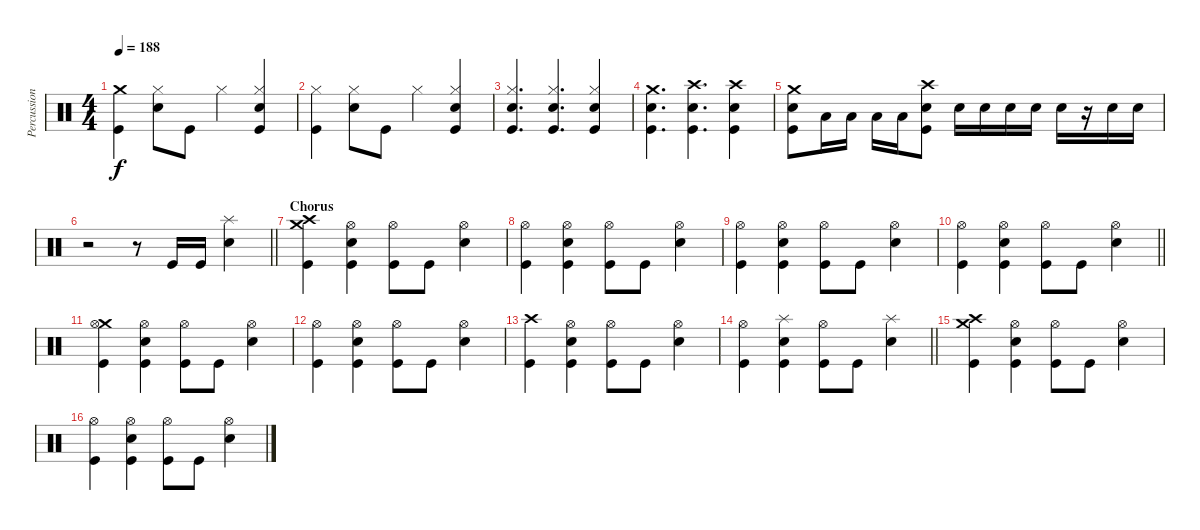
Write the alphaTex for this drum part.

\track ("Percussion" "Percussion") {instrument percussion}
\staff {score}
\articulation defaults
\ts (4 4)
\tempo 188
\clef neutral
\ks c
("Crash medium (hit)" "Kick (hit)").4{dy f} ("Hi-Hat (closed)" "Electric Snare (hit)").8 "Kick (hit)".8 "Hi-Hat (closed)".4 ("Hi-Hat (closed)" "Electric Snare (hit)" "Kick (hit)").4 |
("Hi-Hat (closed)" "Kick (hit)").4 ("Hi-Hat (closed)" "Electric Snare (hit)").8 "Kick (hit)".8 "Hi-Hat (closed)".4 ("Hi-Hat (closed)" "Electric Snare (hit)" "Kick (hit)").4 |
("Hi-Hat (closed)" "Electric Snare (hit)" "Kick (hit)").4{d} ("Hi-Hat (closed)" "Electric Snare (hit)" "Kick (hit)").4{d} ("Hi-Hat (closed)" "Electric Snare (hit)" "Kick (hit)").4 |
("Crash medium (hit)" "Electric Snare (hit)" "Kick (hit)").4{d} ("Crash high (hit)" "Electric Snare (hit)" "Kick (hit)").4{d} ("Crash high (hit)" "Electric Snare (hit)" "Kick (hit)").4 |
("Crash medium (hit)" "Electric Snare (hit)" "Kick (hit)").8 "Low Floor Tom (hit)".16 "Low Floor Tom (hit)".16 "Low Floor Tom (hit)".16 "Low Floor Tom (hit)".16 ("Crash high (hit)" "Electric Snare (hit)" "Kick (hit)").8 "Electric Snare (hit)".16 "Electric Snare (hit)".16 "Electric Snare (hit)".16 "Electric Snare (hit)".16 "Electric Snare (hit)".16 r.16 "Electric Snare (hit)".16 "Electric Snare (hit)".16 |
\barLineRight lightlight
r.2 r.8 "Kick (hit)".16 "Kick (hit)".16 ("Splash (hit)" "Electric Snare (hit)").4 |
\section ("" "Chorus")
("Crash high (hit)" "Crash medium (hit)" "Kick (hit)").4 ("Hi-Hat (open)" "Electric Snare (hit)" "Kick (hit)").4 ("Hi-Hat (open)" "Kick (hit)").8 "Kick (hit)".8 ("Hi-Hat (open)" "Electric Snare (hit)").4 |
("Hi-Hat (open)" "Kick (hit)").4 ("Hi-Hat (open)" "Electric Snare (hit)" "Kick (hit)").4 ("Hi-Hat (open)" "Kick (hit)").8 "Kick (hit)".8 ("Hi-Hat (open)" "Electric Snare (hit)").4 |
("Hi-Hat (open)" "Kick (hit)").4 ("Hi-Hat (open)" "Electric Snare (hit)" "Kick (hit)").4 ("Hi-Hat (open)" "Kick (hit)").8 "Kick (hit)".8 ("Hi-Hat (open)" "Electric Snare (hit)").4 |
\barLineRight lightlight
("Hi-Hat (open)" "Kick (hit)").4 ("Hi-Hat (open)" "Electric Snare (hit)" "Kick (hit)").4 ("Hi-Hat (open)" "Kick (hit)").8 "Kick (hit)".8 ("Hi-Hat (open)" "Electric Snare (hit)").4 |
("Crash medium (hit)" "Hi-Hat (open)" "Kick (hit)").4 ("Hi-Hat (open)" "Electric Snare (hit)" "Kick (hit)").4 ("Hi-Hat (open)" "Kick (hit)").8 "Kick (hit)".8 ("Hi-Hat (open)" "Electric Snare (hit)").4 |
("Hi-Hat (open)" "Kick (hit)").4 ("Hi-Hat (open)" "Electric Snare (hit)" "Kick (hit)").4 ("Hi-Hat (open)" "Kick (hit)").8 "Kick (hit)".8 ("Hi-Hat (open)" "Electric Snare (hit)").4 |
("Crash high (hit)" "Kick (hit)").4 ("Hi-Hat (open)" "Electric Snare (hit)" "Kick (hit)").4 ("Hi-Hat (open)" "Kick (hit)").8 "Kick (hit)".8 ("Hi-Hat (open)" "Electric Snare (hit)").4 |
\barLineRight lightlight
("Hi-Hat (open)" "Kick (hit)").4 ("Splash (hit)" "Electric Snare (hit)" "Kick (hit)").4 ("Hi-Hat (open)" "Kick (hit)").8 "Kick (hit)".8 ("Splash (hit)" "Electric Snare (hit)").4 |
("Crash high (hit)" "Crash medium (hit)" "Kick (hit)").4 ("Hi-Hat (open)" "Electric Snare (hit)" "Kick (hit)").4 ("Hi-Hat (open)" "Kick (hit)").8 "Kick (hit)".8 ("Hi-Hat (open)" "Electric Snare (hit)").4 |
("Hi-Hat (open)" "Kick (hit)").4 ("Hi-Hat (open)" "Electric Snare (hit)" "Kick (hit)").4 ("Hi-Hat (open)" "Kick (hit)").8 "Kick (hit)".8 ("Hi-Hat (open)" "Electric Snare (hit)").4
